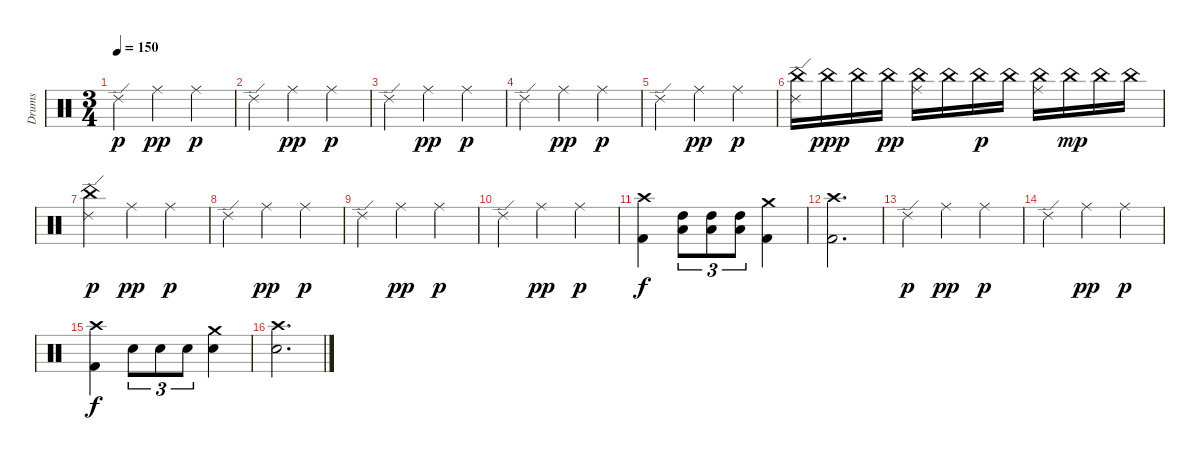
\track ("Drums" "Drums") {instrument percussion}
\staff {score}
\articulation defaults
\ts (3 4)
\tempo 150
\clef neutral
\ks c "Ride (edge) 2".4{dy p} "Ride (middle)".4{dy pp} "Ride (middle)".4{dy p}
|
"Ride (edge) 2".4 "Ride (middle)".4{dy pp} "Ride (middle)".4{dy p} |
"Ride (edge) 2".4 "Ride (middle)".4{dy pp} "Ride (middle)".4{dy p} |
"Ride (edge) 2".4 "Ride (middle)".4{dy pp} "Ride (middle)".4{dy p} |
"Ride (edge) 2".4 "Ride (middle)".4{dy pp} "Ride (middle)".4{dy p} |
("China (hit)" "Ride (edge) 2").16 "China (hit)".16{dy ppp} "China (hit)".16 "China (hit)".16{dy pp} ("China (hit)" "Ride (middle)").16 "China (hit)".16 "China (hit)".16{dy p} "China (hit)".16 ("China (hit)" "Ride (middle)").16 "China (hit)".16{dy mp} "China (hit)".16 "China (hit)".16 |
("China (hit)" "Ride (edge) 2").4{dy p} "Ride (middle)".4{dy pp} "Ride (middle)".4{dy p} |
"Ride (edge) 2".4 "Ride (middle)".4{dy pp} "Ride (middle)".4{dy p} |
"Ride (edge) 2".4 "Ride (middle)".4{dy pp} "Ride (middle)".4{dy p} |
"Ride (edge) 2".4 "Ride (middle)".4{dy pp} "Ride (middle)".4{dy p} |
("Kick (hit) 2" "Crash high (hit)").4{dy f} ("High Tom (hit)" "Low Tom (hit)").8{tu (3 2)} ("High Tom (hit)" "Low Tom (hit)").8{tu (3 2)} ("High Tom (hit)" "Low Tom (hit)").8{tu (3 2)} ("Kick (hit) 2" "Crash medium (hit)").4 |
("Kick (hit) 2" "Crash high (hit)").2{d} |
"Ride (edge) 2".4{dy p} "Ride (middle)".4{dy pp} "Ride (middle)".4{dy p} |
"Ride (edge) 2".4 "Ride (middle)".4{dy pp} "Ride (middle)".4{dy p} |
("Kick (hit) 2" "Crash high (hit)").4{dy f} "Electric Snare (hit)".8{tu (3 2)} "Electric Snare (hit)".8{tu (3 2)} "Electric Snare (hit)".8{tu (3 2)} ("Electric Snare (hit)" "Crash medium (hit)").4 |
("Electric Snare (hit)" "Crash high (hit)").2{d}
